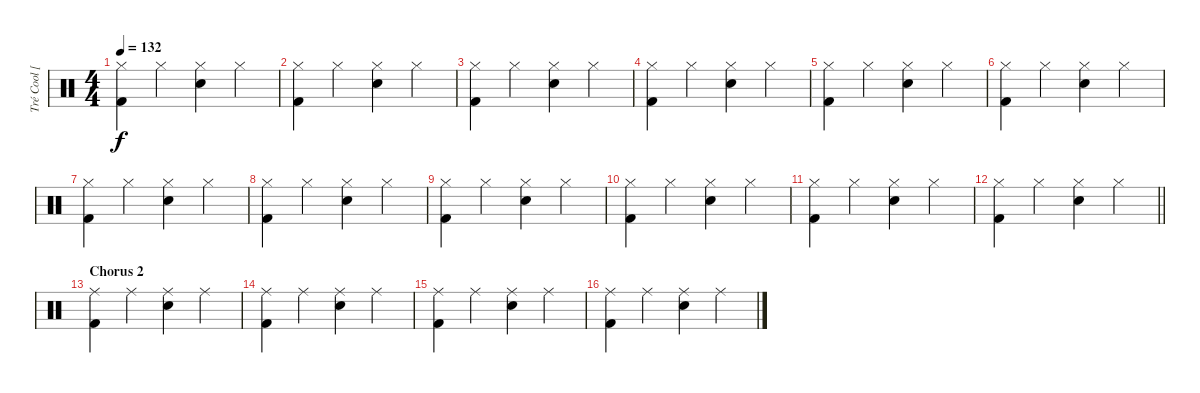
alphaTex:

\track ("Tré Cool [Drums]" "Tré Cool [") {instrument percussion}
\staff {score}
\articulation defaults
\ts (4 4)
\tempo 132
\clef neutral
\ks c
("Hi-Hat (closed)" "Kick (hit) 2").4{dy f} "Hi-Hat (closed)".4 ("Hi-Hat (closed)" "Electric Snare (hit)").4 "Hi-Hat (closed)".4 |
("Hi-Hat (closed)" "Kick (hit) 2").4 "Hi-Hat (closed)".4 ("Hi-Hat (closed)" "Electric Snare (hit)").4 "Hi-Hat (closed)".4 |
("Hi-Hat (closed)" "Kick (hit) 2").4 "Hi-Hat (closed)".4 ("Hi-Hat (closed)" "Electric Snare (hit)").4 "Hi-Hat (closed)".4 |
("Hi-Hat (closed)" "Kick (hit) 2").4 "Hi-Hat (closed)".4 ("Hi-Hat (closed)" "Electric Snare (hit)").4 "Hi-Hat (closed)".4 |
("Hi-Hat (closed)" "Kick (hit) 2").4 "Hi-Hat (closed)".4 ("Hi-Hat (closed)" "Electric Snare (hit)").4 "Hi-Hat (closed)".4 |
("Hi-Hat (closed)" "Kick (hit) 2").4 "Hi-Hat (closed)".4 ("Hi-Hat (closed)" "Electric Snare (hit)").4 "Hi-Hat (closed)".4 |
("Hi-Hat (closed)" "Kick (hit) 2").4 "Hi-Hat (closed)".4 ("Hi-Hat (closed)" "Electric Snare (hit)").4 "Hi-Hat (closed)".4 |
("Hi-Hat (closed)" "Kick (hit) 2").4 "Hi-Hat (closed)".4 ("Hi-Hat (closed)" "Electric Snare (hit)").4 "Hi-Hat (closed)".4 |
("Hi-Hat (closed)" "Kick (hit) 2").4 "Hi-Hat (closed)".4 ("Hi-Hat (closed)" "Electric Snare (hit)").4 "Hi-Hat (closed)".4 |
("Hi-Hat (closed)" "Kick (hit) 2").4 "Hi-Hat (closed)".4 ("Hi-Hat (closed)" "Electric Snare (hit)").4 "Hi-Hat (closed)".4 |
("Hi-Hat (closed)" "Kick (hit) 2").4 "Hi-Hat (closed)".4 ("Hi-Hat (closed)" "Electric Snare (hit)").4 "Hi-Hat (closed)".4 |
\barLineRight lightlight
("Hi-Hat (closed)" "Kick (hit) 2").4 "Hi-Hat (closed)".4 ("Hi-Hat (closed)" "Electric Snare (hit)").4 "Hi-Hat (closed)".4 |
\section ("" "Chorus 2")
("Ride (middle)" "Kick (hit) 2").4 "Ride (middle)".4 ("Ride (middle)" "Electric Snare (hit)").4 "Ride (middle)".4 |
("Ride (middle)" "Kick (hit) 2").4 "Ride (middle)".4 ("Ride (middle)" "Electric Snare (hit)").4 "Ride (middle)".4 |
("Ride (middle)" "Kick (hit) 2").4 "Ride (middle)".4 ("Ride (middle)" "Electric Snare (hit)").4 "Ride (middle)".4 |
("Ride (middle)" "Kick (hit) 2").4 "Ride (middle)".4 ("Ride (middle)" "Electric Snare (hit)").4 "Ride (middle)".4
